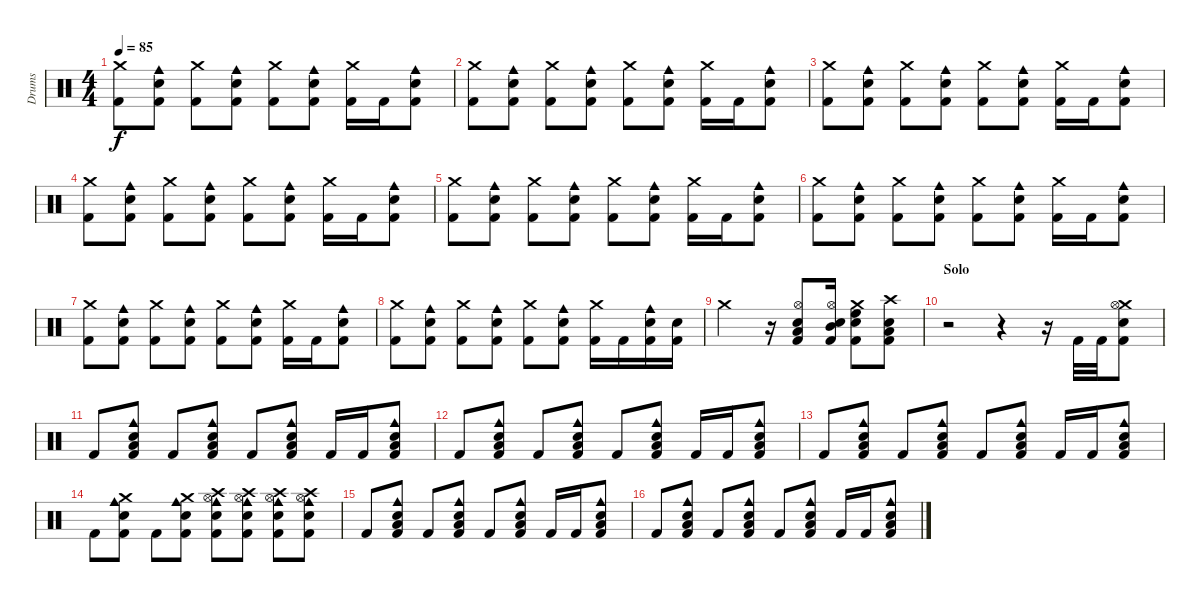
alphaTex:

\track ("Drums" "Drums") {instrument percussion}
\staff {score}
\articulation defaults
\ts (4 4)
\tempo 85
\clef neutral
\ks c
("Crash medium (hit)" "Kick (hit) 2").8{dy f} ("Cowbell medium (hit)" "Electric Snare (hit)" "Kick (hit) 2").8 ("Crash medium (hit)" "Kick (hit) 2").8 ("Cowbell medium (hit)" "Electric Snare (hit)" "Kick (hit) 2").8 ("Crash medium (hit)" "Kick (hit) 2").8 ("Cowbell medium (hit)" "Electric Snare (hit)" "Kick (hit) 2").8 ("Crash medium (hit)" "Kick (hit) 2").16 "Kick (hit) 2".16 ("Cowbell medium (hit)" "Electric Snare (hit)" "Kick (hit) 2").8 |
("Crash medium (hit)" "Kick (hit) 2").8 ("Cowbell medium (hit)" "Electric Snare (hit)" "Kick (hit) 2").8 ("Crash medium (hit)" "Kick (hit) 2").8 ("Cowbell medium (hit)" "Electric Snare (hit)" "Kick (hit) 2").8 ("Crash medium (hit)" "Kick (hit) 2").8 ("Cowbell medium (hit)" "Electric Snare (hit)" "Kick (hit) 2").8 ("Crash medium (hit)" "Kick (hit) 2").16 "Kick (hit) 2".16 ("Cowbell medium (hit)" "Electric Snare (hit)" "Kick (hit) 2").8 |
("Crash medium (hit)" "Kick (hit) 2").8 ("Cowbell medium (hit)" "Electric Snare (hit)" "Kick (hit) 2").8 ("Crash medium (hit)" "Kick (hit) 2").8 ("Cowbell medium (hit)" "Electric Snare (hit)" "Kick (hit) 2").8 ("Crash medium (hit)" "Kick (hit) 2").8 ("Cowbell medium (hit)" "Electric Snare (hit)" "Kick (hit) 2").8 ("Crash medium (hit)" "Kick (hit) 2").16 "Kick (hit) 2".16 ("Cowbell medium (hit)" "Electric Snare (hit)" "Kick (hit) 2").8 |
("Crash medium (hit)" "Kick (hit) 2").8 ("Cowbell medium (hit)" "Electric Snare (hit)" "Kick (hit) 2").8 ("Crash medium (hit)" "Kick (hit) 2").8 ("Cowbell medium (hit)" "Electric Snare (hit)" "Kick (hit) 2").8 ("Crash medium (hit)" "Kick (hit) 2").8 ("Cowbell medium (hit)" "Electric Snare (hit)" "Kick (hit) 2").8 ("Crash medium (hit)" "Kick (hit) 2").16 "Kick (hit) 2".16 ("Cowbell medium (hit)" "Electric Snare (hit)" "Kick (hit) 2").8 |
("Crash medium (hit)" "Kick (hit) 2").8 ("Cowbell medium (hit)" "Electric Snare (hit)" "Kick (hit) 2").8 ("Crash medium (hit)" "Kick (hit) 2").8 ("Cowbell medium (hit)" "Electric Snare (hit)" "Kick (hit) 2").8 ("Crash medium (hit)" "Kick (hit) 2").8 ("Cowbell medium (hit)" "Electric Snare (hit)" "Kick (hit) 2").8 ("Crash medium (hit)" "Kick (hit) 2").16 "Kick (hit) 2".16 ("Cowbell medium (hit)" "Electric Snare (hit)" "Kick (hit) 2").8 |
("Crash medium (hit)" "Kick (hit) 2").8 ("Cowbell medium (hit)" "Electric Snare (hit)" "Kick (hit) 2").8 ("Crash medium (hit)" "Kick (hit) 2").8 ("Cowbell medium (hit)" "Electric Snare (hit)" "Kick (hit) 2").8 ("Crash medium (hit)" "Kick (hit) 2").8 ("Cowbell medium (hit)" "Electric Snare (hit)" "Kick (hit) 2").8 ("Crash medium (hit)" "Kick (hit) 2").16 "Kick (hit) 2".16 ("Cowbell medium (hit)" "Electric Snare (hit)" "Kick (hit) 2").8 |
("Crash medium (hit)" "Kick (hit) 2").8 ("Cowbell medium (hit)" "Electric Snare (hit)" "Kick (hit) 2").8 ("Crash medium (hit)" "Kick (hit) 2").8 ("Cowbell medium (hit)" "Electric Snare (hit)" "Kick (hit) 2").8 ("Crash medium (hit)" "Kick (hit) 2").8 ("Cowbell medium (hit)" "Electric Snare (hit)" "Kick (hit) 2").8 ("Crash medium (hit)" "Kick (hit) 2").16 "Kick (hit) 2".16 ("Cowbell medium (hit)" "Electric Snare (hit)" "Kick (hit) 2").8 |
("Crash medium (hit)" "Kick (hit) 2").8 ("Cowbell medium (hit)" "Electric Snare (hit)" "Kick (hit) 2").8 ("Crash medium (hit)" "Kick (hit) 2").8 ("Cowbell medium (hit)" "Electric Snare (hit)" "Kick (hit) 2").8 ("Crash medium (hit)" "Kick (hit) 2").8 ("Cowbell medium (hit)" "Electric Snare (hit)" "Kick (hit) 2").8 ("Crash medium (hit)" "Kick (hit) 2").16 "Kick (hit) 2".16 ("Cowbell medium (hit)" "Electric Snare (hit)" "Kick (hit) 2").16 ("Electric Snare (hit)" "Kick (hit) 2").16 |
"Crash medium (hit)".2 r.16 ("Hi-Hat (open)" "Low Tom (hit)" "Snare (hit) 2" "Kick (hit) 2").8 ("Hi-Hat (open)" "Mid Tom (hit)" "Electric Snare (hit)" "Kick (hit) 2").16 ("Crash medium (hit)" "High Floor Tom (hit)" "Electric Snare (hit)" "Kick (hit) 2").8 ("Crash high (hit)" "Low Floor Tom (hit)" "Snare (hit) 2" "Kick (hit) 2").8 |
\section ("" "Solo")
r.2 r.4 r.16 "Kick (hit) 2".32 "Kick (hit) 2".32 ("Crash medium (hit)" "Hi-Hat (open)" "Electric Snare (hit)" "Kick (hit) 2").8 |
"Kick (hit) 2".8 ("Cowbell medium (hit)" "Electric Snare (hit)" "Low Tom (hit)" "Kick (hit) 2").8 "Kick (hit) 2".8 ("Cowbell medium (hit)" "Electric Snare (hit)" "Low Tom (hit)" "Kick (hit) 2").8 "Kick (hit) 2".8 ("Cowbell medium (hit)" "Electric Snare (hit)" "Low Tom (hit)" "Kick (hit) 2").8 "Kick (hit) 2".16 "Kick (hit) 2".16 ("Cowbell medium (hit)" "Electric Snare (hit)" "Low Tom (hit)" "Kick (hit) 2").8 |
"Kick (hit) 2".8 ("Cowbell medium (hit)" "Electric Snare (hit)" "Low Tom (hit)" "Kick (hit) 2").8 "Kick (hit) 2".8 ("Cowbell medium (hit)" "Electric Snare (hit)" "Low Tom (hit)" "Kick (hit) 2").8 "Kick (hit) 2".8 ("Cowbell medium (hit)" "Electric Snare (hit)" "Low Tom (hit)" "Kick (hit) 2").8 "Kick (hit) 2".16 "Kick (hit) 2".16 ("Cowbell medium (hit)" "Electric Snare (hit)" "Low Tom (hit)" "Kick (hit) 2").8 |
"Kick (hit) 2".8 ("Cowbell medium (hit)" "Electric Snare (hit)" "Low Tom (hit)" "Kick (hit) 2").8 "Kick (hit) 2".8 ("Cowbell medium (hit)" "Electric Snare (hit)" "Low Tom (hit)" "Kick (hit) 2").8 "Kick (hit) 2".8 ("Cowbell medium (hit)" "Electric Snare (hit)" "Low Tom (hit)" "Kick (hit) 2").8 "Kick (hit) 2".16 "Kick (hit) 2".16 ("Cowbell medium (hit)" "Electric Snare (hit)" "Low Tom (hit)" "Kick (hit) 2").8 |
"Kick (hit) 2".8 ("Cowbell medium (hit)" "Crash medium (hit)" "Electric Snare (hit)" "Kick (hit) 2").8 "Kick (hit) 2".8 ("Cowbell medium (hit)" "Crash medium (hit)" "Electric Snare (hit)" "Kick (hit) 2").8 ("Cowbell medium (hit)" "Crash high (hit)" "Hi-Hat (open)" "Electric Snare (hit)" "Kick (hit) 2").8 ("Cowbell medium (hit)" "Crash high (hit)" "Hi-Hat (open)" "Electric Snare (hit)" "Kick (hit) 2").8 ("Cowbell medium (hit)" "Crash high (hit)" "Hi-Hat (open)" "Electric Snare (hit)" "Kick (hit) 2").8 ("Cowbell medium (hit)" "Crash high (hit)" "Hi-Hat (open)" "Electric Snare (hit)" "Kick (hit) 2").8 |
"Kick (hit) 2".8 ("Cowbell medium (hit)" "Electric Snare (hit)" "Low Tom (hit)" "Kick (hit) 2").8 "Kick (hit) 2".8 ("Cowbell medium (hit)" "Electric Snare (hit)" "Low Tom (hit)" "Kick (hit) 2").8 "Kick (hit) 2".8 ("Cowbell medium (hit)" "Electric Snare (hit)" "Low Tom (hit)" "Kick (hit) 2").8 "Kick (hit) 2".16 "Kick (hit) 2".16 ("Cowbell medium (hit)" "Electric Snare (hit)" "Low Tom (hit)" "Kick (hit) 2").8 |
"Kick (hit) 2".8 ("Cowbell medium (hit)" "Electric Snare (hit)" "Low Tom (hit)" "Kick (hit) 2").8 "Kick (hit) 2".8 ("Cowbell medium (hit)" "Electric Snare (hit)" "Low Tom (hit)" "Kick (hit) 2").8 "Kick (hit) 2".8 ("Cowbell medium (hit)" "Electric Snare (hit)" "Low Tom (hit)" "Kick (hit) 2").8 "Kick (hit) 2".16 "Kick (hit) 2".16 ("Cowbell medium (hit)" "Electric Snare (hit)" "Low Tom (hit)" "Kick (hit) 2").8
